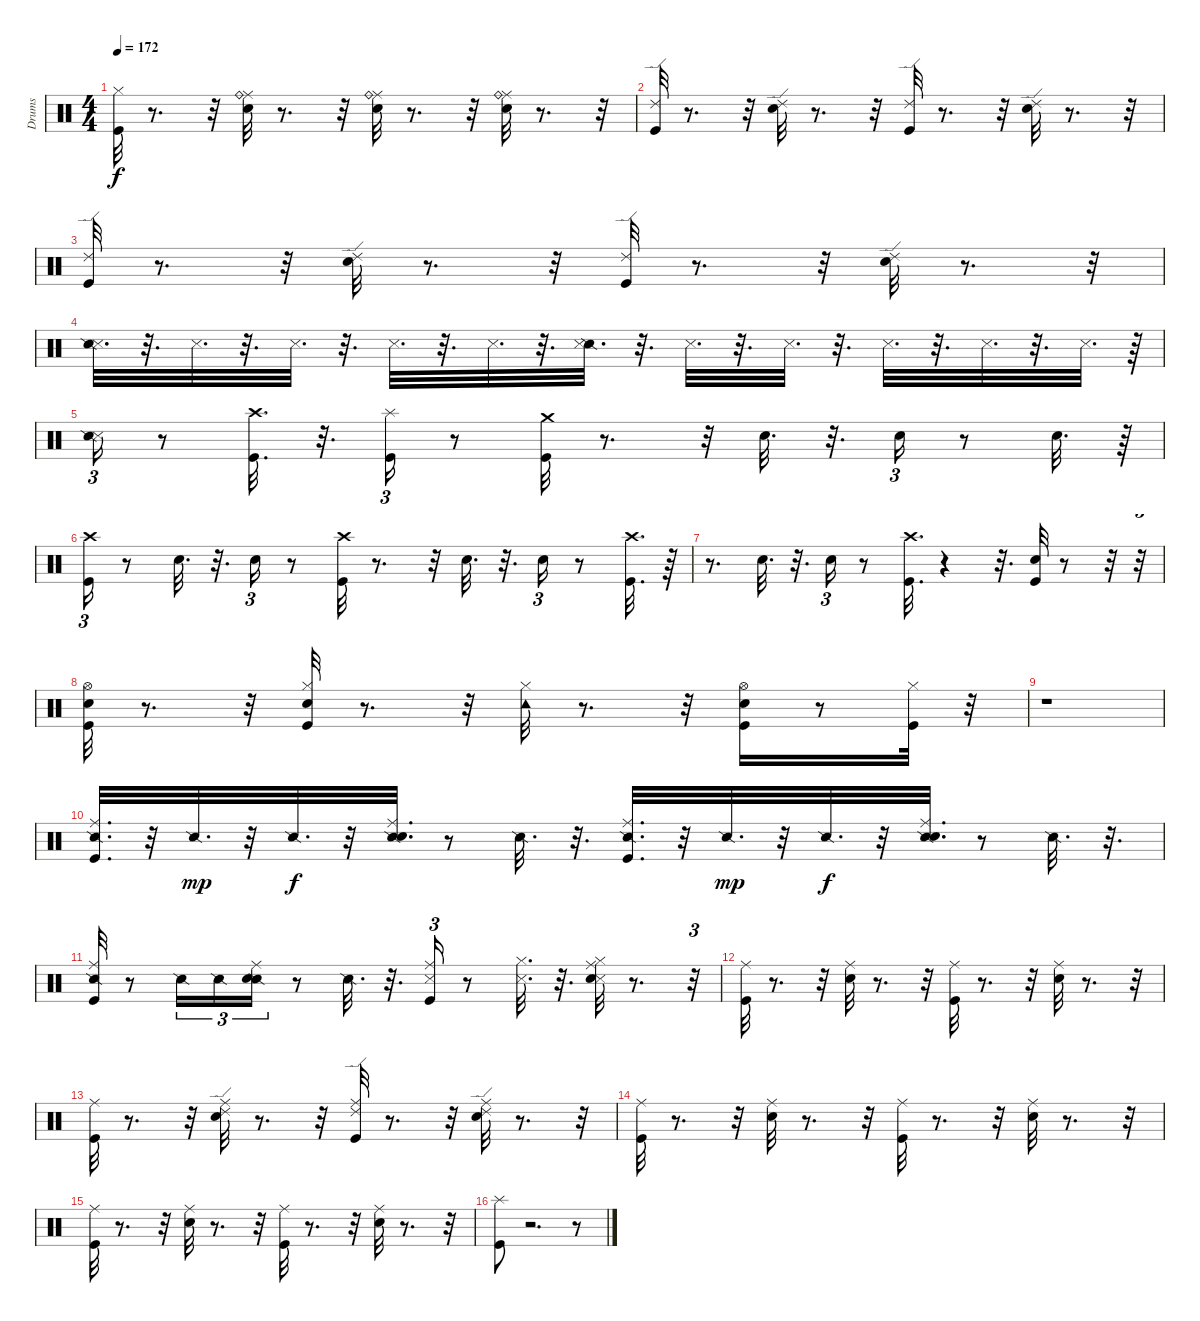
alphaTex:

\track ("Drums" "Drums") {instrument percussion}
\staff {score}
\articulation defaults
\ts (4 4)
\tempo 172
\clef neutral
\ks c
("Kick (hit)" "Hi-Hat (closed)").32{dy f} r.8{d} r.32 ("Snare (hit) 2" "Ride (middle)" "Ride (bell)").32 r.8{d} r.32 ("Snare (hit) 2" "Ride (middle)" "Ride (bell)").32 r.8{d} r.32 ("Snare (hit) 2" "Ride (middle)" "Ride (bell)").32 r.8{d} r.32 |
("Kick (hit)" "Ride (edge) 2").32 r.8{d} r.32 ("Snare (hit) 2" "Ride (edge) 2").32 r.8{d} r.32 ("Ride (edge) 2" "Kick (hit)").32 r.8{d} r.32 ("Snare (hit) 2" "Ride (edge) 2").32 r.8{d} r.32 |
("Kick (hit)" "Ride (edge) 2").32 r.8{d} r.32 ("Snare (hit) 2" "Ride (edge) 2").32 r.8{d} r.32 ("Kick (hit)" "Ride (edge) 2").32 r.8{d} r.32 ("Snare (hit) 2" "Ride (edge) 2").32 r.8{d} r.32 |
("Snare (side stick) 3" "Snare (side stick) 2").32{d} r.32{d} "Snare (side stick) 3".32{d} r.32{d} "Snare (side stick) 3".32{d} r.32{d} "Snare (side stick) 3".32{d} r.32{d} "Snare (side stick) 3".32{d} r.32{d} ("Snare (side stick) 2" "Snare (side stick) 3").32{d} r.32{d} "Snare (side stick) 3".32{d} r.32{d} "Snare (side stick) 3".32{d} r.32{d} "Snare (side stick) 3".32{d} r.32{d} "Snare (side stick) 3".32{d} r.32{d} "Snare (side stick) 3".32{d} r.64 |
("Snare (side stick) 3" "Snare (side stick) 2").16{tu (3 2)} r.8 ("Crash high (hit)" "Kick (hit)").32{d} r.32{d} ("Splash (hit)" "Kick (hit)").16{tu (3 2)} r.8 ("Crash medium (hit)" "Kick (hit)").32 r.8{d} r.32 "Electric Snare (hit)".32{d} r.32{d} "Electric Snare (hit)".16{tu (3 2)} r.8 "Snare (hit) 2".32{d} r.64 |
("Crash high (hit)" "Kick (hit)").16{tu (3 2)} r.8 "Snare (hit) 2".32{d} r.32{d} "Snare (hit) 2".16{tu (3 2)} r.8 ("Kick (hit)" "Crash high (hit)").32 r.8{d} r.32 "Snare (hit) 2".32{d} r.32{d} "Snare (hit) 2".16{tu (3 2)} r.8 ("Crash high (hit)" "Kick (hit)").32{d} r.64 |
r.8{d} "Snare (hit) 2".32{d} r.32{d} "Snare (hit) 2".16{tu (3 2)} r.8 ("Kick (hit)" "Crash high (hit)").32{d} r.4 r.32{d} ("Snare (hit) 2" "Kick (hit)").32 r.8 r.32 r.32{tu (3 2)} |
("Snare (hit) 2" "Hi-Hat (open)" "Kick (hit)").32 r.8{d} r.32 ("Snare (hit) 2" "Hi-Hat (closed)" "Kick (hit)").32 r.8{d} r.32 ("Hi-Hat (closed)" "Tambourine (hit)").32 r.8{d} r.32 ("Snare (hit) 2" "Hi-Hat (open)" "Kick (hit)").16 r.8 ("Kick (hit)" "Hi-Hat (closed)").32 r.32 |
r.1 |
("Snare (side stick) 2" "Ride (middle)" "Kick (hit)").32{d} r.32 "Snare (side stick) 2".32{d dy mp} r.32 "Snare (side stick) 2".32{d dy f} r.32 ("Snare (side stick) 2" "Snare (hit) 2" "Ride (middle)").32{d} r.8 "Snare (side stick) 2".32{d} r.32{d} ("Snare (side stick) 2" "Ride (middle)" "Kick (hit)").32{d} r.32 "Snare (side stick) 2".32{d dy mp} r.32 "Snare (side stick) 2".32{d dy f} r.32 ("Snare (side stick) 2" "Snare (hit) 2" "Ride (middle)").32{d} r.8 "Snare (side stick) 2".32{d} r.32{d} |
("Snare (side stick) 2" "Ride (middle)" "Kick (hit)").32 r.8 "Snare (side stick) 2".16{tu (3 2)} "Snare (side stick) 2".16{tu (3 2)} ("Snare (side stick) 2" "Ride (middle)" "Snare (hit) 2").16{tu (3 2)} r.8 "Snare (side stick) 2".32{d} r.32{d} ("Snare (side stick) 3" "Ride (middle)" "Kick (hit)").16{tu (3 2)} r.8 ("Snare (side stick) 3" "Hi-Hat (closed)").32{d} r.32{d} ("Snare (side stick) 3" "Hi-Hat (closed)" "Snare (hit) 2" "Ride (middle)").32 r.8{d} r.32{tu (3 2)} |
("Ride (middle)" "Kick (hit)").32 r.8{d} r.32 ("Snare (hit) 2" "Ride (middle)").32 r.8{d} r.32 ("Ride (middle)" "Kick (hit)").32 r.8{d} r.32 ("Snare (hit) 2" "Ride (middle)").32 r.8{d} r.32 |
("Kick (hit)" "Ride (middle)").32 r.8{d} r.32 ("Snare (hit) 2" "Ride (middle)" "Ride (edge) 2").32 r.8{d} r.32 ("Ride (edge) 2" "Ride (middle)" "Kick (hit)").32 r.8{d} r.32 ("Ride (edge) 2" "Ride (middle)" "Snare (hit) 2").32 r.8{d} r.32 |
("Ride (middle)" "Kick (hit)").32 r.8{d} r.32 ("Snare (hit) 2" "Ride (middle)").32 r.8{d} r.32 ("Ride (middle)" "Kick (hit)").32 r.8{d} r.32 ("Snare (hit) 2" "Ride (middle)").32 r.8{d} r.32 |
("Ride (middle)" "Kick (hit)").32 r.8{d} r.32 ("Ride (middle)" "Snare (hit) 2").32 r.8{d} r.32 ("Ride (middle)" "Kick (hit)").32 r.8{d} r.32 ("Ride (middle)" "Snare (hit) 2").32 r.8{d} r.32 |
("Splash (hit)" "Kick (hit)").8 r.2{d} r.8
